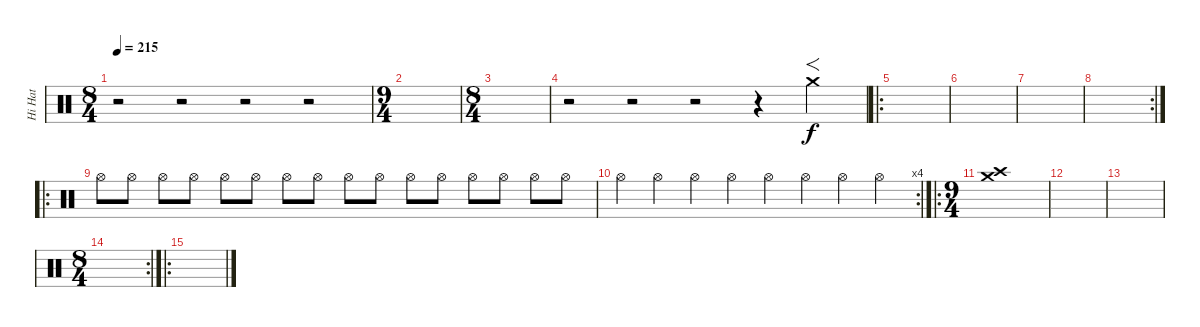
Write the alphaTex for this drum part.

\track ("Hi Hat" "Hi Hat") {instrument percussion}
\staff {score}
\articulation defaults
\ts (8 4)
\tempo 215
\clef neutral
\ks c
r.2{dy f} r.2 r.2 r.2 |
\ts (9 4)
|
\ts (8 4)
|
r.2 r.2 r.2 r.4 "Crash medium (hit)".4{f} |
\ro
|
|
|
\rc 2
|
\ro "Hi-Hat (open)".8 "Hi-Hat (open)".8 "Hi-Hat (open)".8 "Hi-Hat (open)".8 "Hi-Hat (open)".8 "Hi-Hat (open)".8 "Hi-Hat (open)".8 "Hi-Hat (open)".8 "Hi-Hat (open)".8 "Hi-Hat (open)".8 "Hi-Hat (open)".8 "Hi-Hat (open)".8 "Hi-Hat (open)".8 "Hi-Hat (open)".8 "Hi-Hat (open)".8 "Hi-Hat (open)".8
|
\rc 4 "Hi-Hat (open)".4 "Hi-Hat (open)".4 "Hi-Hat (open)".4 "Hi-Hat (open)".4 "Hi-Hat (open)".4 "Hi-Hat (open)".4 "Hi-Hat (open)".4 "Hi-Hat (open)".4
|
\ro
\ts (9 4)
("Crash medium (hit)" "Crash high (hit)").1 |
|
|
\rc 2
\ts (8 4)
|
\ro
